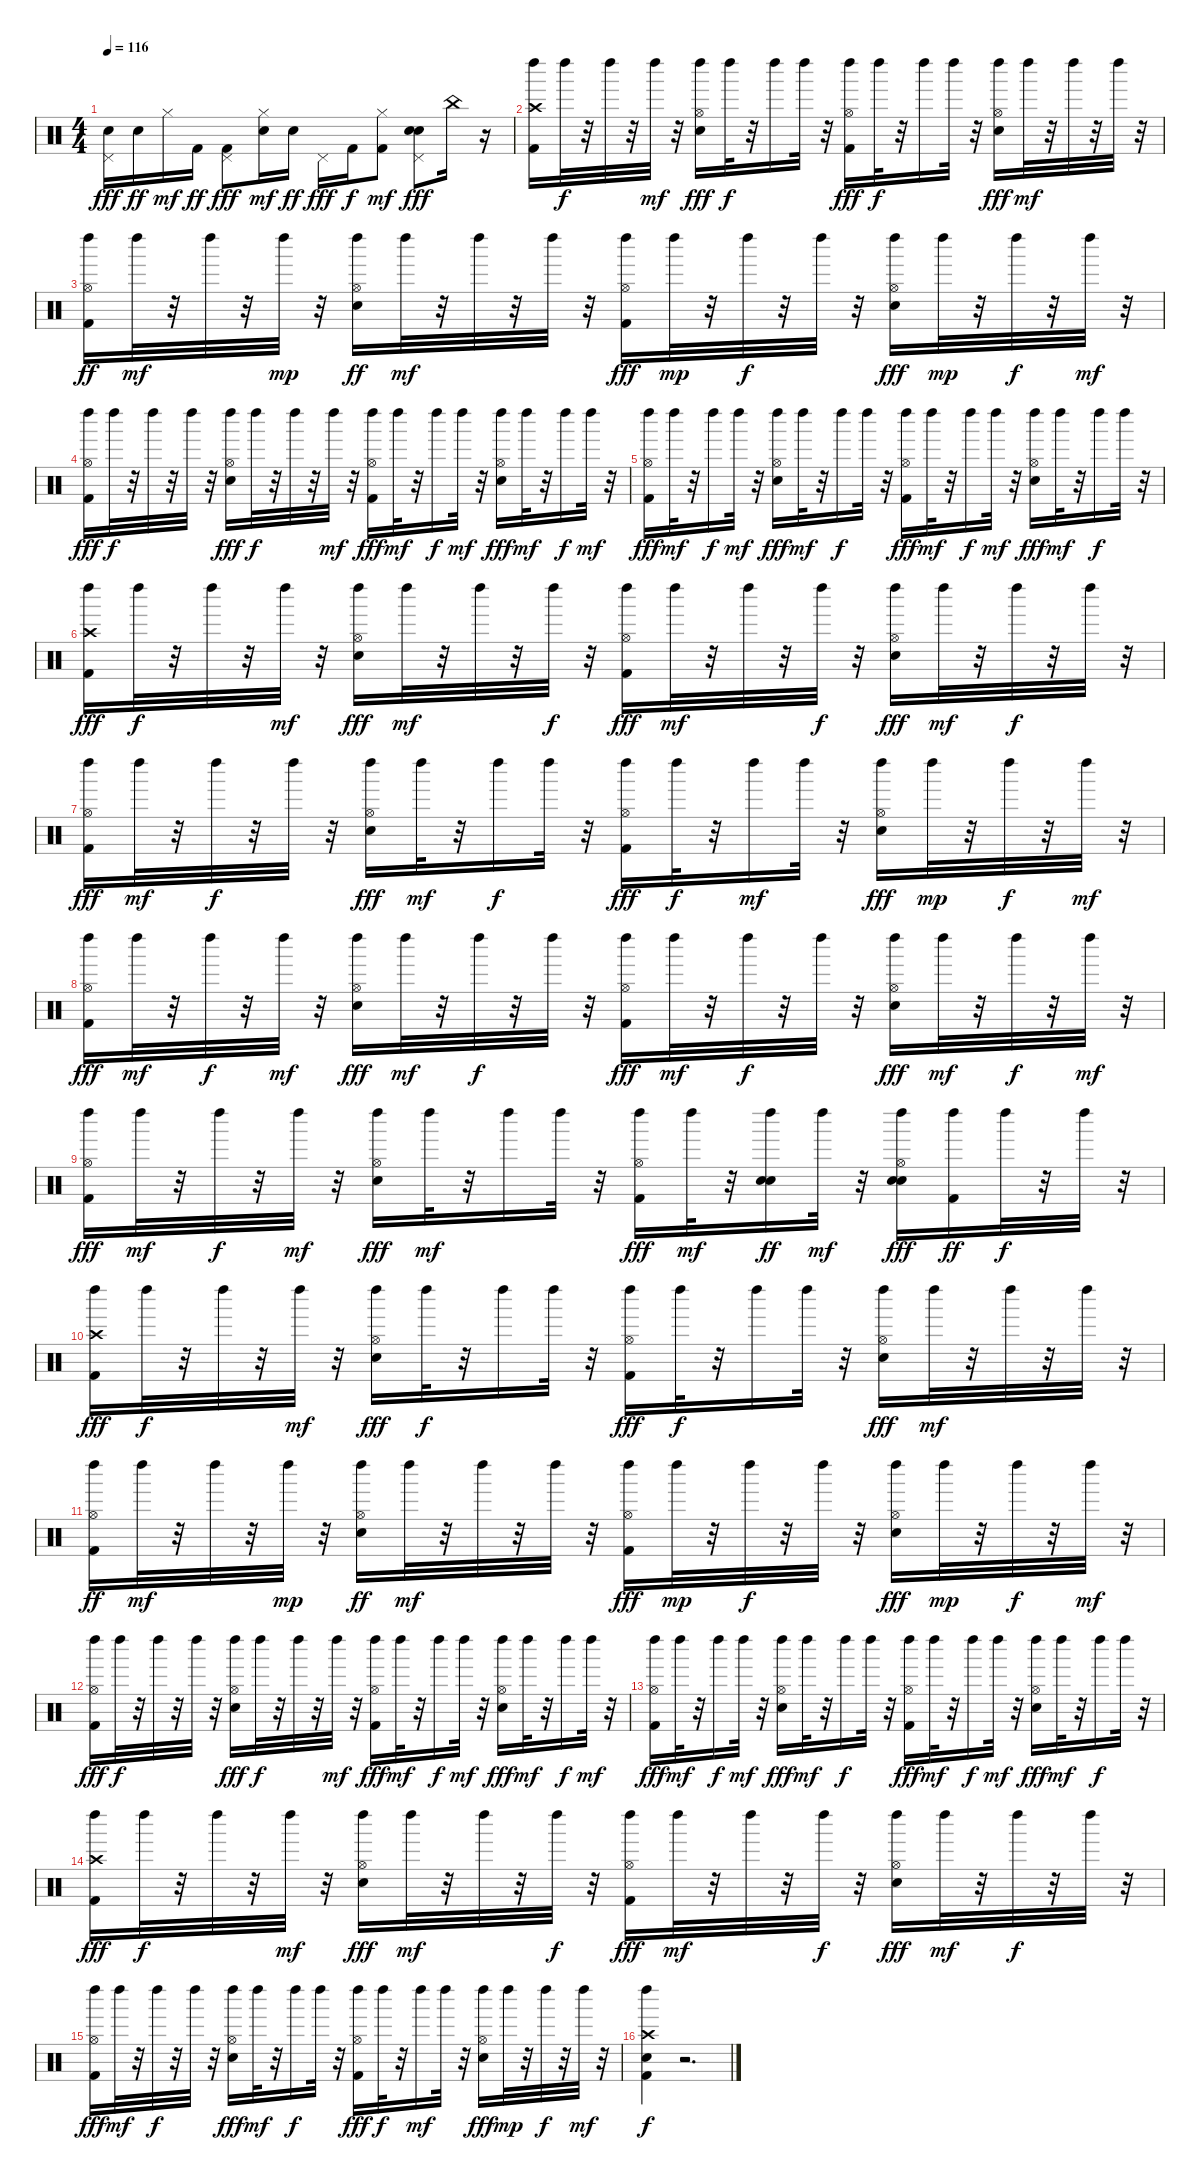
\track "" {instrument percussion}
\staff {score}
\articulation defaults
\ts (4 4)
\tempo 116
\clef neutral
\ks c
("Snare (hit) 2" "Pedal Hi-Hat (hit)").16{dy fff} "Snare (hit) 2".16{dy ff} "Hi-Hat (closed)".16{dy mf} "Kick (hit) 2".16{dy ff} ("Kick (hit) 2" "Pedal Hi-Hat (hit)").8{dy fff} ("Snare (hit) 2" "Hi-Hat (closed)").16{dy mf} "Snare (hit) 2".16{dy ff} "Pedal Hi-Hat (hit)".16{dy fff} "Kick (hit) 2".16{dy f} ("Kick (hit) 2" "Hi-Hat (closed)").8{dy mf} ("Snare (hit) 2" "Snare (hit) 2" "Pedal Hi-Hat (hit)").8{dy fff} "China (choke)".16 r.16 |
("Left Maraca (hit)" "Kick (hit) 2" "Crash high (hit)").16 "Left Maraca (hit)".32{dy f} r.32 "Left Maraca (hit)".32 r.32 "Left Maraca (hit)".32{dy mf} r.32 ("Left Maraca (hit)" "Snare (hit) 2" "Hi-Hat (open)").16{dy fff} "Left Maraca (hit)".32{dy f} r.32 "Left Maraca (hit)".16 "Left Maraca (hit)".32 r.32 ("Left Maraca (hit)" "Kick (hit) 2" "Hi-Hat (open)").16{dy fff} "Left Maraca (hit)".32{dy f} r.32 "Left Maraca (hit)".16 "Left Maraca (hit)".32 r.32 ("Left Maraca (hit)" "Snare (hit) 2" "Hi-Hat (open)").16{dy fff} "Left Maraca (hit)".32{dy mf} r.32 "Left Maraca (hit)".32 r.32 "Left Maraca (hit)".32 r.32 |
("Left Maraca (hit)" "Kick (hit) 2" "Hi-Hat (open)").16{dy ff} "Left Maraca (hit)".32{dy mf} r.32 "Left Maraca (hit)".32 r.32 "Left Maraca (hit)".32{dy mp} r.32 ("Left Maraca (hit)" "Snare (hit) 2" "Hi-Hat (open)").16{dy ff} "Left Maraca (hit)".32{dy mf} r.32 "Left Maraca (hit)".32 r.32 "Left Maraca (hit)".32 r.32 ("Left Maraca (hit)" "Kick (hit) 2" "Hi-Hat (open)").16{dy fff} "Left Maraca (hit)".32{dy mp} r.32 "Left Maraca (hit)".32{dy f} r.32 "Left Maraca (hit)".32 r.32 ("Left Maraca (hit)" "Snare (hit) 2" "Hi-Hat (open)").16{dy fff} "Left Maraca (hit)".32{dy mp} r.32 "Left Maraca (hit)".32{dy f} r.32 "Left Maraca (hit)".32{dy mf} r.32 |
("Left Maraca (hit)" "Kick (hit) 2" "Hi-Hat (open)").16{dy fff} "Left Maraca (hit)".32{dy f} r.32 "Left Maraca (hit)".32 r.32 "Left Maraca (hit)".32 r.32 ("Left Maraca (hit)" "Snare (hit) 2" "Hi-Hat (open)").16{dy fff} "Left Maraca (hit)".32{dy f} r.32 "Left Maraca (hit)".32 r.32 "Left Maraca (hit)".32{dy mf} r.32 ("Left Maraca (hit)" "Kick (hit) 2" "Hi-Hat (open)").16{dy fff} "Left Maraca (hit)".32{dy mf} r.32 "Left Maraca (hit)".16{dy f} "Left Maraca (hit)".32{dy mf} r.32 ("Left Maraca (hit)" "Snare (hit) 2" "Hi-Hat (open)").16{dy fff} "Left Maraca (hit)".32{dy mf} r.32 "Left Maraca (hit)".16{dy f} "Left Maraca (hit)".32{dy mf} r.32 |
("Left Maraca (hit)" "Kick (hit) 2" "Hi-Hat (open)").16{dy fff} "Left Maraca (hit)".32{dy mf} r.32 "Left Maraca (hit)".16{dy f} "Left Maraca (hit)".32{dy mf} r.32 ("Left Maraca (hit)" "Snare (hit) 2" "Hi-Hat (open)").16{dy fff} "Left Maraca (hit)".32{dy mf} r.32 "Left Maraca (hit)".16{dy f} "Left Maraca (hit)".32 r.32 ("Left Maraca (hit)" "Kick (hit) 2" "Hi-Hat (open)").16{dy fff} "Left Maraca (hit)".32{dy mf} r.32 "Left Maraca (hit)".16{dy f} "Left Maraca (hit)".32{dy mf} r.32 ("Left Maraca (hit)" "Snare (hit) 2" "Hi-Hat (open)").16{dy fff} "Left Maraca (hit)".32{dy mf} r.32 "Left Maraca (hit)".16{dy f} "Left Maraca (hit)".32 r.32 |
("Left Maraca (hit)" "Kick (hit) 2" "Crash high (hit)").16{dy fff} "Left Maraca (hit)".32{dy f} r.32 "Left Maraca (hit)".32 r.32 "Left Maraca (hit)".32{dy mf} r.32 ("Left Maraca (hit)" "Snare (hit) 2" "Hi-Hat (open)").16{dy fff} "Left Maraca (hit)".32{dy mf} r.32 "Left Maraca (hit)".32 r.32 "Left Maraca (hit)".32{dy f} r.32 ("Left Maraca (hit)" "Kick (hit) 2" "Hi-Hat (open)").16{dy fff} "Left Maraca (hit)".32{dy mf} r.32 "Left Maraca (hit)".32 r.32 "Left Maraca (hit)".32{dy f} r.32 ("Left Maraca (hit)" "Snare (hit) 2" "Hi-Hat (open)").16{dy fff} "Left Maraca (hit)".32{dy mf} r.32 "Left Maraca (hit)".32{dy f} r.32 "Left Maraca (hit)".32 r.32 |
("Left Maraca (hit)" "Kick (hit) 2" "Hi-Hat (open)").16{dy fff} "Left Maraca (hit)".32{dy mf} r.32 "Left Maraca (hit)".32{dy f} r.32 "Left Maraca (hit)".32 r.32 ("Left Maraca (hit)" "Snare (hit) 2" "Hi-Hat (open)").16{dy fff} "Left Maraca (hit)".32{dy mf} r.32 "Left Maraca (hit)".16{dy f} "Left Maraca (hit)".32 r.32 ("Left Maraca (hit)" "Kick (hit) 2" "Hi-Hat (open)").16{dy fff} "Left Maraca (hit)".32{dy f} r.32 "Left Maraca (hit)".16{dy mf} "Left Maraca (hit)".32 r.32 ("Left Maraca (hit)" "Snare (hit) 2" "Hi-Hat (open)").16{dy fff} "Left Maraca (hit)".32{dy mp} r.32 "Left Maraca (hit)".32{dy f} r.32 "Left Maraca (hit)".32{dy mf} r.32 |
("Left Maraca (hit)" "Kick (hit) 2" "Hi-Hat (open)").16{dy fff} "Left Maraca (hit)".32{dy mf} r.32 "Left Maraca (hit)".32{dy f} r.32 "Left Maraca (hit)".32{dy mf} r.32 ("Left Maraca (hit)" "Snare (hit) 2" "Hi-Hat (open)").16{dy fff} "Left Maraca (hit)".32{dy mf} r.32 "Left Maraca (hit)".32{dy f} r.32 "Left Maraca (hit)".32 r.32 ("Left Maraca (hit)" "Kick (hit) 2" "Hi-Hat (open)").16{dy fff} "Left Maraca (hit)".32{dy mf} r.32 "Left Maraca (hit)".32{dy f} r.32 "Left Maraca (hit)".32 r.32 ("Left Maraca (hit)" "Snare (hit) 2" "Hi-Hat (open)").16{dy fff} "Left Maraca (hit)".32{dy mf} r.32 "Left Maraca (hit)".32{dy f} r.32 "Left Maraca (hit)".32{dy mf} r.32 |
("Left Maraca (hit)" "Kick (hit) 2" "Hi-Hat (open)").16{dy fff} "Left Maraca (hit)".32{dy mf} r.32 "Left Maraca (hit)".32{dy f} r.32 "Left Maraca (hit)".32{dy mf} r.32 ("Left Maraca (hit)" "Snare (hit) 2" "Hi-Hat (open)").16{dy fff} "Left Maraca (hit)".32{dy mf} r.32 "Left Maraca (hit)".16 "Left Maraca (hit)".32 r.32 ("Left Maraca (hit)" "Kick (hit) 2" "Hi-Hat (open)").16{dy fff} "Left Maraca (hit)".32{dy mf} r.32 ("Snare (hit) 2" "Left Maraca (hit)" "Snare (hit) 2").16{dy ff} "Left Maraca (hit)".32{dy mf} r.32 ("Snare (hit) 2" "Left Maraca (hit)" "Snare (hit) 2" "Hi-Hat (open)").16{dy fff} ("Left Maraca (hit)" "Kick (hit) 2").16{dy ff} "Left Maraca (hit)".32{dy f} r.32 "Left Maraca (hit)".32 r.32 |
("Left Maraca (hit)" "Kick (hit) 2" "Crash high (hit)").16{dy fff} "Left Maraca (hit)".32{dy f} r.32 "Left Maraca (hit)".32 r.32 "Left Maraca (hit)".32{dy mf} r.32 ("Left Maraca (hit)" "Snare (hit) 2" "Hi-Hat (open)").16{dy fff} "Left Maraca (hit)".32{dy f} r.32 "Left Maraca (hit)".16 "Left Maraca (hit)".32 r.32 ("Left Maraca (hit)" "Kick (hit) 2" "Hi-Hat (open)").16{dy fff} "Left Maraca (hit)".32{dy f} r.32 "Left Maraca (hit)".16 "Left Maraca (hit)".32 r.32 ("Left Maraca (hit)" "Snare (hit) 2" "Hi-Hat (open)").16{dy fff} "Left Maraca (hit)".32{dy mf} r.32 "Left Maraca (hit)".32 r.32 "Left Maraca (hit)".32 r.32 |
("Left Maraca (hit)" "Kick (hit) 2" "Hi-Hat (open)").16{dy ff} "Left Maraca (hit)".32{dy mf} r.32 "Left Maraca (hit)".32 r.32 "Left Maraca (hit)".32{dy mp} r.32 ("Left Maraca (hit)" "Snare (hit) 2" "Hi-Hat (open)").16{dy ff} "Left Maraca (hit)".32{dy mf} r.32 "Left Maraca (hit)".32 r.32 "Left Maraca (hit)".32 r.32 ("Left Maraca (hit)" "Kick (hit) 2" "Hi-Hat (open)").16{dy fff} "Left Maraca (hit)".32{dy mp} r.32 "Left Maraca (hit)".32{dy f} r.32 "Left Maraca (hit)".32 r.32 ("Left Maraca (hit)" "Snare (hit) 2" "Hi-Hat (open)").16{dy fff} "Left Maraca (hit)".32{dy mp} r.32 "Left Maraca (hit)".32{dy f} r.32 "Left Maraca (hit)".32{dy mf} r.32 |
("Left Maraca (hit)" "Kick (hit) 2" "Hi-Hat (open)").16{dy fff} "Left Maraca (hit)".32{dy f} r.32 "Left Maraca (hit)".32 r.32 "Left Maraca (hit)".32 r.32 ("Left Maraca (hit)" "Snare (hit) 2" "Hi-Hat (open)").16{dy fff} "Left Maraca (hit)".32{dy f} r.32 "Left Maraca (hit)".32 r.32 "Left Maraca (hit)".32{dy mf} r.32 ("Left Maraca (hit)" "Kick (hit) 2" "Hi-Hat (open)").16{dy fff} "Left Maraca (hit)".32{dy mf} r.32 "Left Maraca (hit)".16{dy f} "Left Maraca (hit)".32{dy mf} r.32 ("Left Maraca (hit)" "Snare (hit) 2" "Hi-Hat (open)").16{dy fff} "Left Maraca (hit)".32{dy mf} r.32 "Left Maraca (hit)".16{dy f} "Left Maraca (hit)".32{dy mf} r.32 |
("Left Maraca (hit)" "Kick (hit) 2" "Hi-Hat (open)").16{dy fff} "Left Maraca (hit)".32{dy mf} r.32 "Left Maraca (hit)".16{dy f} "Left Maraca (hit)".32{dy mf} r.32 ("Left Maraca (hit)" "Snare (hit) 2" "Hi-Hat (open)").16{dy fff} "Left Maraca (hit)".32{dy mf} r.32 "Left Maraca (hit)".16{dy f} "Left Maraca (hit)".32 r.32 ("Left Maraca (hit)" "Kick (hit) 2" "Hi-Hat (open)").16{dy fff} "Left Maraca (hit)".32{dy mf} r.32 "Left Maraca (hit)".16{dy f} "Left Maraca (hit)".32{dy mf} r.32 ("Left Maraca (hit)" "Snare (hit) 2" "Hi-Hat (open)").16{dy fff} "Left Maraca (hit)".32{dy mf} r.32 "Left Maraca (hit)".16{dy f} "Left Maraca (hit)".32 r.32 |
("Left Maraca (hit)" "Kick (hit) 2" "Crash high (hit)").16{dy fff} "Left Maraca (hit)".32{dy f} r.32 "Left Maraca (hit)".32 r.32 "Left Maraca (hit)".32{dy mf} r.32 ("Left Maraca (hit)" "Snare (hit) 2" "Hi-Hat (open)").16{dy fff} "Left Maraca (hit)".32{dy mf} r.32 "Left Maraca (hit)".32 r.32 "Left Maraca (hit)".32{dy f} r.32 ("Left Maraca (hit)" "Kick (hit) 2" "Hi-Hat (open)").16{dy fff} "Left Maraca (hit)".32{dy mf} r.32 "Left Maraca (hit)".32 r.32 "Left Maraca (hit)".32{dy f} r.32 ("Left Maraca (hit)" "Snare (hit) 2" "Hi-Hat (open)").16{dy fff} "Left Maraca (hit)".32{dy mf} r.32 "Left Maraca (hit)".32{dy f} r.32 "Left Maraca (hit)".32 r.32 |
("Left Maraca (hit)" "Kick (hit) 2" "Hi-Hat (open)").16{dy fff} "Left Maraca (hit)".32{dy mf} r.32 "Left Maraca (hit)".32{dy f} r.32 "Left Maraca (hit)".32 r.32 ("Left Maraca (hit)" "Snare (hit) 2" "Hi-Hat (open)").16{dy fff} "Left Maraca (hit)".32{dy mf} r.32 "Left Maraca (hit)".16{dy f} "Left Maraca (hit)".32 r.32 ("Left Maraca (hit)" "Kick (hit) 2" "Hi-Hat (open)").16{dy fff} "Left Maraca (hit)".32{dy f} r.32 "Left Maraca (hit)".16{dy mf} "Left Maraca (hit)".32 r.32 ("Left Maraca (hit)" "Snare (hit) 2" "Hi-Hat (open)").16{dy fff} "Left Maraca (hit)".32{dy mp} r.32 "Left Maraca (hit)".32{dy f} r.32 "Left Maraca (hit)".32{dy mf} r.32 |
("Crash high (hit)" "Kick (hit) 2" "Snare (hit) 2" "Left Maraca (hit)").4{dy f} r.2{d}
